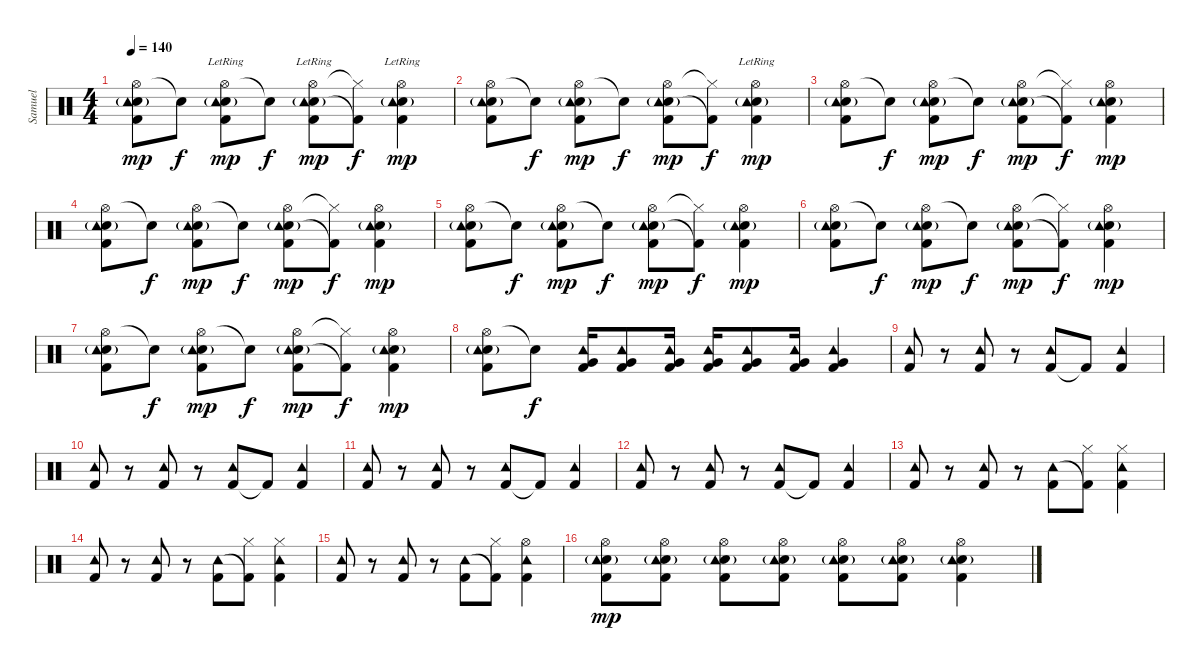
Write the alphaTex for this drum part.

\track ("Samuel" "Samuel") {instrument percussion}
\staff {score}
\articulation defaults
\ts (4 4)
\tempo 140
\clef neutral
\ks c
("Hi-Hat (open)" "Snare (hit) 2"{g} "Kick (hit) 2" "Tambourine (hit)").8{dy mp} "Snare (hit)"{t}.8{dy f} ("Hi-Hat (open)"{lr} "Snare (hit) 2"{g} "Kick (hit) 2" "Tambourine (hit)").8{dy mp} "Snare (hit)"{t}.8{dy f} ("Hi-Hat (open)"{lr} "Snare (hit) 2"{g} "Kick (hit) 2" "Tambourine (hit)").8{dy mp} ("Hi-Hat (closed)"{t} "Kick (hit) 2"{t}).8{dy f} ("Hi-Hat (open)"{lr} "Snare (hit) 2"{g lr} "Kick (hit) 2"{lr} "Tambourine (hit)"{lr}).4{dy mp} |
("Hi-Hat (open)" "Snare (hit) 2"{g} "Kick (hit) 2" "Tambourine (hit)").8 "Snare (hit)"{t}.8{dy f} ("Hi-Hat (open)" "Snare (hit) 2"{g} "Kick (hit) 2" "Tambourine (hit)").8{dy mp} "Snare (hit)"{t}.8{dy f} ("Hi-Hat (open)" "Snare (hit) 2"{g} "Kick (hit) 2" "Tambourine (hit)").8{dy mp} ("Hi-Hat (closed)"{t} "Kick (hit) 2"{t}).8{dy f} ("Hi-Hat (open)"{lr} "Snare (hit) 2"{g} "Kick (hit) 2" "Tambourine (hit)").4{dy mp} |
("Hi-Hat (open)" "Snare (hit) 2"{g} "Kick (hit) 2" "Tambourine (hit)").8 "Snare (hit)"{t}.8{dy f} ("Hi-Hat (open)" "Snare (hit) 2"{g} "Kick (hit) 2" "Tambourine (hit)").8{dy mp} "Snare (hit)"{t}.8{dy f} ("Hi-Hat (open)" "Snare (hit) 2"{g} "Kick (hit) 2" "Tambourine (hit)").8{dy mp} ("Hi-Hat (closed)"{t} "Kick (hit) 2"{t}).8{dy f} ("Hi-Hat (open)" "Snare (hit) 2"{g} "Kick (hit) 2" "Tambourine (hit)").4{dy mp} |
("Hi-Hat (open)" "Snare (hit) 2"{g} "Kick (hit) 2" "Tambourine (hit)").8 "Snare (hit)"{t}.8{dy f} ("Hi-Hat (open)" "Snare (hit) 2"{g} "Kick (hit) 2" "Tambourine (hit)").8{dy mp} "Snare (hit)"{t}.8{dy f} ("Hi-Hat (open)" "Snare (hit) 2"{g} "Kick (hit) 2" "Tambourine (hit)").8{dy mp} ("Hi-Hat (closed)"{t} "Kick (hit) 2"{t}).8{dy f} ("Hi-Hat (open)" "Snare (hit) 2"{g} "Kick (hit) 2" "Tambourine (hit)").4{dy mp} |
("Hi-Hat (open)" "Snare (hit) 2"{g} "Kick (hit) 2" "Tambourine (hit)").8 "Snare (hit)"{t}.8{dy f} ("Hi-Hat (open)" "Snare (hit) 2"{g} "Kick (hit) 2" "Tambourine (hit)").8{dy mp} "Snare (hit)"{t}.8{dy f} ("Hi-Hat (open)" "Snare (hit) 2"{g} "Kick (hit) 2" "Tambourine (hit)").8{dy mp} ("Hi-Hat (closed)"{t} "Kick (hit) 2"{t}).8{dy f} ("Hi-Hat (open)" "Snare (hit) 2"{g} "Kick (hit) 2" "Tambourine (hit)").4{dy mp} |
("Hi-Hat (open)" "Snare (hit) 2"{g} "Kick (hit) 2" "Tambourine (hit)").8 "Snare (hit)"{t}.8{dy f} ("Hi-Hat (open)" "Snare (hit) 2"{g} "Kick (hit) 2" "Tambourine (hit)").8{dy mp} "Snare (hit)"{t}.8{dy f} ("Hi-Hat (open)" "Snare (hit) 2"{g} "Kick (hit) 2" "Tambourine (hit)").8{dy mp} ("Hi-Hat (closed)"{t} "Kick (hit) 2"{t}).8{dy f} ("Hi-Hat (open)" "Snare (hit) 2"{g} "Kick (hit) 2" "Tambourine (hit)").4{dy mp} |
("Hi-Hat (open)" "Snare (hit) 2"{g} "Kick (hit) 2" "Tambourine (hit)").8 "Snare (hit)"{t}.8{dy f} ("Hi-Hat (open)" "Snare (hit) 2"{g} "Kick (hit) 2" "Tambourine (hit)").8{dy mp} "Snare (hit)"{t}.8{dy f} ("Hi-Hat (open)" "Snare (hit) 2"{g} "Kick (hit) 2" "Tambourine (hit)").8{dy mp} ("Hi-Hat (closed)"{t} "Kick (hit) 2"{t}).8{dy f} ("Hi-Hat (open)" "Snare (hit) 2"{g} "Kick (hit) 2" "Tambourine (hit)").4{dy mp} |
("Hi-Hat (open)" "Snare (hit) 2"{g} "Kick (hit) 2" "Tambourine (hit)").8 "Snare (hit)"{t}.8{dy f} ("Very Low Tom (hit)" "Kick (hit) 2" "Tambourine (hit)").16 ("Very Low Tom (hit)" "Kick (hit) 2" "Tambourine (hit)").8 ("Very Low Tom (hit)" "Kick (hit) 2" "Tambourine (hit)").16 ("Very Low Tom (hit)" "Kick (hit) 2" "Tambourine (hit)").16 ("Very Low Tom (hit)" "Kick (hit) 2" "Tambourine (hit)").8 ("Very Low Tom (hit)" "Kick (hit) 2" "Tambourine (hit)").16 ("Very Low Tom (hit)" "Kick (hit) 2" "Tambourine (hit)").4 |
("Kick (hit) 2" "Tambourine (hit)").8 r.8 ("Kick (hit) 2" "Tambourine (hit)").8 r.8 ("Kick (hit) 2" "Tambourine (hit)").8 "Kick (hit) 2"{t}.8 ("Kick (hit) 2" "Tambourine (hit)").4 |
("Kick (hit) 2" "Tambourine (hit)").8 r.8 ("Kick (hit) 2" "Tambourine (hit)").8 r.8 ("Kick (hit) 2" "Tambourine (hit)").8 "Kick (hit) 2"{t}.8 ("Kick (hit) 2" "Tambourine (hit)").4 |
("Kick (hit) 2" "Tambourine (hit)").8 r.8 ("Kick (hit) 2" "Tambourine (hit)").8 r.8 ("Kick (hit) 2" "Tambourine (hit)").8 "Kick (hit) 2"{t}.8 ("Kick (hit) 2" "Tambourine (hit)").4 |
("Kick (hit) 2" "Tambourine (hit)").8 r.8 ("Kick (hit) 2" "Tambourine (hit)").8 r.8 ("Kick (hit) 2" "Tambourine (hit)").8 "Kick (hit) 2"{t}.8 ("Kick (hit) 2" "Tambourine (hit)").4 |
("Kick (hit) 2" "Tambourine (hit)").8 r.8 ("Kick (hit) 2" "Tambourine (hit)").8 r.8 ("Kick (hit) 2" "Tambourine (hit)").8 ("Hi-Hat (closed)" "Kick (hit) 2"{t}).8 ("Hi-Hat (closed)" "Kick (hit) 2" "Tambourine (hit)").4 |
("Kick (hit) 2" "Tambourine (hit)").8 r.8 ("Kick (hit) 2" "Tambourine (hit)").8 r.8 ("Kick (hit) 2" "Tambourine (hit)").8 ("Hi-Hat (closed)" "Kick (hit) 2"{t}).8 ("Hi-Hat (closed)" "Kick (hit) 2" "Tambourine (hit)").4 |
("Kick (hit) 2" "Tambourine (hit)").8 r.8 ("Kick (hit) 2" "Tambourine (hit)").8 r.8 ("Kick (hit) 2" "Tambourine (hit)").8 ("Hi-Hat (closed)" "Kick (hit) 2"{t}).8 ("Hi-Hat (open)" "Kick (hit) 2" "Tambourine (hit)").4 |
("Hi-Hat (open)" "Snare (hit) 2"{g} "Kick (hit) 2" "Tambourine (hit)").8{dy mp} ("Hi-Hat (open)" "Snare (hit) 2"{g} "Kick (hit) 2" "Tambourine (hit)").8 ("Hi-Hat (open)" "Snare (hit) 2"{g} "Kick (hit) 2" "Tambourine (hit)").8 ("Hi-Hat (open)" "Snare (hit) 2"{g} "Kick (hit) 2" "Tambourine (hit)").8 ("Hi-Hat (open)" "Snare (hit) 2"{g} "Kick (hit) 2" "Tambourine (hit)").8 ("Hi-Hat (open)" "Snare (hit) 2"{g} "Kick (hit) 2" "Tambourine (hit)").8 ("Hi-Hat (open)" "Snare (hit) 2"{g} "Kick (hit) 2" "Tambourine (hit)").4
